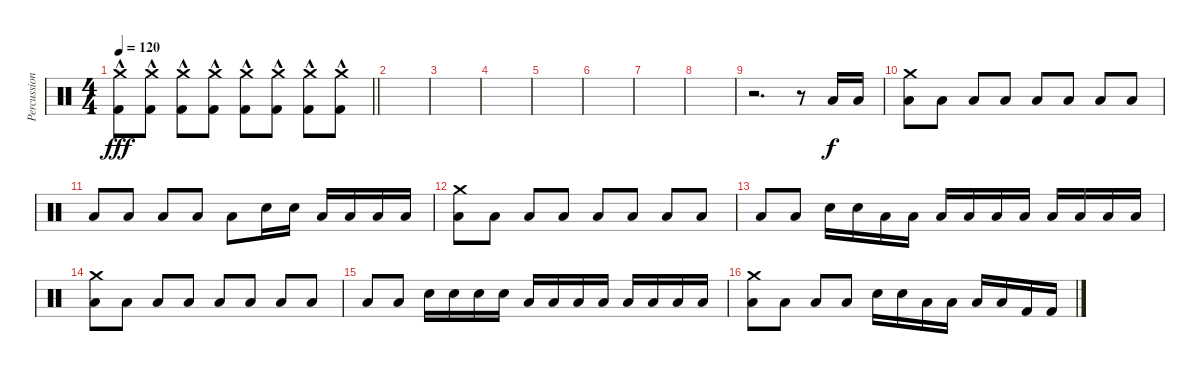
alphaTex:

\track ("Percussion" "Percussion") {instrument percussion}
\staff {score}
\articulation defaults
\ts (4 4)
\tempo 120
\clef neutral
\barLineRight lightlight
\ks c
("Crash medium (hit)" "Kick (hit) 2"{hac}).8{dy fff} ("Crash medium (hit)" "Kick (hit) 2"{hac}).8 ("Crash medium (hit)" "Kick (hit) 2"{hac}).8 ("Crash medium (hit)" "Kick (hit) 2"{hac}).8 ("Crash medium (hit)" "Kick (hit) 2"{hac}).8 ("Crash medium (hit)" "Kick (hit) 2"{hac}).8 ("Crash medium (hit)"{hac} "Kick (hit) 2"{hac}).8 ("Crash medium (hit)"{hac} "Kick (hit) 2"{hac}).8 |
|
|
|
|
|
|
|
r.2{d} r.8 "Low Floor Tom (hit)".16{dy f} "Low Floor Tom (hit)".16 |
("Crash medium (hit)" "Low Floor Tom (hit)").8 "Low Floor Tom (hit)".8 "Low Floor Tom (hit)".8 "Low Floor Tom (hit)".8 "Low Floor Tom (hit)".8 "Low Floor Tom (hit)".8 "Low Floor Tom (hit)".8 "Low Floor Tom (hit)".8 |
"Low Floor Tom (hit)".8 "Low Floor Tom (hit)".8 "Low Floor Tom (hit)".8 "Low Floor Tom (hit)".8 "Low Floor Tom (hit)".8 "Snare (hit) 2".16 "Snare (hit) 2".16 "Low Tom (hit)".16 "Low Tom (hit)".16 "Low Floor Tom (hit)".16 "Low Floor Tom (hit)".16 |
("Crash medium (hit)" "Low Floor Tom (hit)").8 "Low Floor Tom (hit)".8 "Low Floor Tom (hit)".8 "Low Floor Tom (hit)".8 "Low Floor Tom (hit)".8 "Low Floor Tom (hit)".8 "Low Floor Tom (hit)".8 "Low Floor Tom (hit)".8 |
"Low Floor Tom (hit)".8 "Low Floor Tom (hit)".8 "Snare (hit) 2".16 "Snare (hit) 2".16 "Low Tom (hit)".16 "Low Tom (hit)".16 "Low Tom (hit)".16 "Low Tom (hit)".16 "Low Tom (hit)".16 "Low Tom (hit)".16 "Low Floor Tom (hit)".16 "Low Floor Tom (hit)".16 "Low Floor Tom (hit)".16 "Low Floor Tom (hit)".16 |
("Crash medium (hit)" "Low Floor Tom (hit)").8 "Low Floor Tom (hit)".8 "Low Floor Tom (hit)".8 "Low Floor Tom (hit)".8 "Low Floor Tom (hit)".8 "Low Floor Tom (hit)".8 "Low Floor Tom (hit)".8 "Low Floor Tom (hit)".8 |
"Low Floor Tom (hit)".8 "Low Floor Tom (hit)".8 "Snare (hit) 2".16 "Snare (hit) 2".16 "Snare (hit) 2".16 "Snare (hit) 2".16 "Low Tom (hit)".16 "Low Tom (hit)".16 "Low Tom (hit)".16 "Low Tom (hit)".16 "Low Floor Tom (hit)".16 "Low Floor Tom (hit)".16 "Low Floor Tom (hit)".16 "Low Floor Tom (hit)".16 |
("Crash medium (hit)" "Low Floor Tom (hit)").8 "Low Floor Tom (hit)".8 "Low Floor Tom (hit)".8 "Low Floor Tom (hit)".8 "Snare (hit) 2".16 "Snare (hit) 2".16 "Low Tom (hit)".16 "Low Tom (hit)".16 "Low Floor Tom (hit)".16 "Low Floor Tom (hit)".16 "Kick (hit) 2".16 "Kick (hit) 2".16
